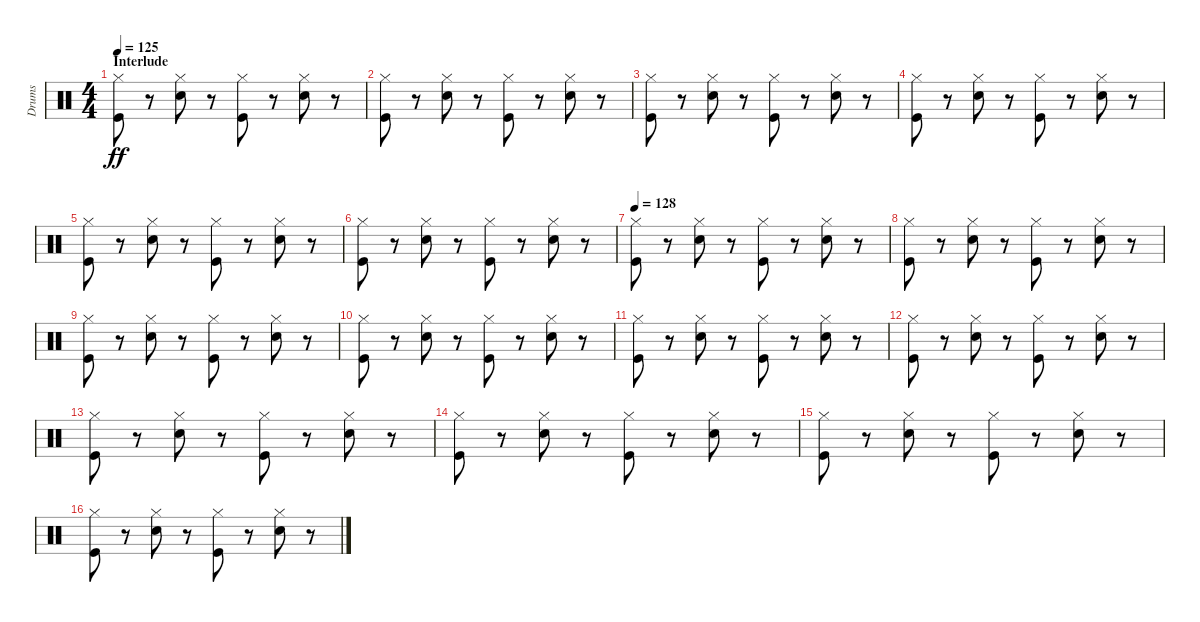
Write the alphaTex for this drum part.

\track ("Drums" "Drums") {instrument percussion}
\staff {score}
\articulation defaults
\ts (4 4)
\section ("" "Interlude")
\tempo 125
\clef neutral
\ks c
("Hi-Hat (closed)" "Kick (hit)").8{dy ff} r.8 ("Hi-Hat (closed)" "Snare (hit) 2").8 r.8 ("Hi-Hat (closed)" "Kick (hit)").8 r.8 ("Hi-Hat (closed)" "Snare (hit) 2").8 r.8 |
("Hi-Hat (closed)" "Kick (hit)").8 r.8 ("Hi-Hat (closed)" "Snare (hit) 2").8 r.8 ("Hi-Hat (closed)" "Kick (hit)").8 r.8 ("Hi-Hat (closed)" "Snare (hit) 2").8 r.8 |
("Hi-Hat (closed)" "Kick (hit)").8 r.8 ("Hi-Hat (closed)" "Snare (hit) 2").8 r.8 ("Hi-Hat (closed)" "Kick (hit)").8 r.8 ("Hi-Hat (closed)" "Snare (hit) 2").8 r.8 |
("Hi-Hat (closed)" "Kick (hit)").8 r.8 ("Hi-Hat (closed)" "Snare (hit) 2").8 r.8 ("Hi-Hat (closed)" "Kick (hit)").8 r.8 ("Hi-Hat (closed)" "Snare (hit) 2").8 r.8 |
("Hi-Hat (closed)" "Kick (hit)").8 r.8 ("Hi-Hat (closed)" "Snare (hit) 2").8 r.8 ("Hi-Hat (closed)" "Kick (hit)").8 r.8 ("Hi-Hat (closed)" "Snare (hit) 2").8 r.8 |
("Hi-Hat (closed)" "Kick (hit)").8 r.8 ("Hi-Hat (closed)" "Snare (hit) 2").8 r.8 ("Hi-Hat (closed)" "Kick (hit)").8 r.8 ("Hi-Hat (closed)" "Snare (hit) 2").8 r.8 |
\tempo 128
("Hi-Hat (closed)" "Kick (hit)").8 r.8 ("Hi-Hat (closed)" "Snare (hit) 2").8 r.8 ("Hi-Hat (closed)" "Kick (hit)").8 r.8 ("Hi-Hat (closed)" "Snare (hit) 2").8 r.8 |
("Hi-Hat (closed)" "Kick (hit)").8 r.8 ("Hi-Hat (closed)" "Snare (hit) 2").8 r.8 ("Hi-Hat (closed)" "Kick (hit)").8 r.8 ("Hi-Hat (closed)" "Snare (hit) 2").8 r.8 |
("Hi-Hat (closed)" "Kick (hit)").8 r.8 ("Hi-Hat (closed)" "Snare (hit) 2").8 r.8 ("Hi-Hat (closed)" "Kick (hit)").8 r.8 ("Hi-Hat (closed)" "Snare (hit) 2").8 r.8 |
("Hi-Hat (closed)" "Kick (hit)").8 r.8 ("Hi-Hat (closed)" "Snare (hit) 2").8 r.8 ("Hi-Hat (closed)" "Kick (hit)").8 r.8 ("Hi-Hat (closed)" "Snare (hit) 2").8 r.8 |
("Hi-Hat (closed)" "Kick (hit)").8 r.8 ("Hi-Hat (closed)" "Snare (hit) 2").8 r.8 ("Hi-Hat (closed)" "Kick (hit)").8 r.8 ("Hi-Hat (closed)" "Snare (hit) 2").8 r.8 |
("Hi-Hat (closed)" "Kick (hit)").8 r.8 ("Hi-Hat (closed)" "Snare (hit) 2").8 r.8 ("Hi-Hat (closed)" "Kick (hit)").8 r.8 ("Hi-Hat (closed)" "Snare (hit) 2").8 r.8 |
("Hi-Hat (closed)" "Kick (hit)").8 r.8 ("Hi-Hat (closed)" "Snare (hit) 2").8 r.8 ("Hi-Hat (closed)" "Kick (hit)").8 r.8 ("Hi-Hat (closed)" "Snare (hit) 2").8 r.8 |
("Hi-Hat (closed)" "Kick (hit)").8 r.8 ("Hi-Hat (closed)" "Snare (hit) 2").8 r.8 ("Hi-Hat (closed)" "Kick (hit)").8 r.8 ("Hi-Hat (closed)" "Snare (hit) 2").8 r.8 |
("Hi-Hat (closed)" "Kick (hit)").8 r.8 ("Hi-Hat (closed)" "Snare (hit) 2").8 r.8 ("Hi-Hat (closed)" "Kick (hit)").8 r.8 ("Hi-Hat (closed)" "Snare (hit) 2").8 r.8 |
("Hi-Hat (closed)" "Kick (hit)").8 r.8 ("Hi-Hat (closed)" "Snare (hit) 2").8 r.8 ("Hi-Hat (closed)" "Kick (hit)").8 r.8 ("Hi-Hat (closed)" "Snare (hit) 2").8 r.8
